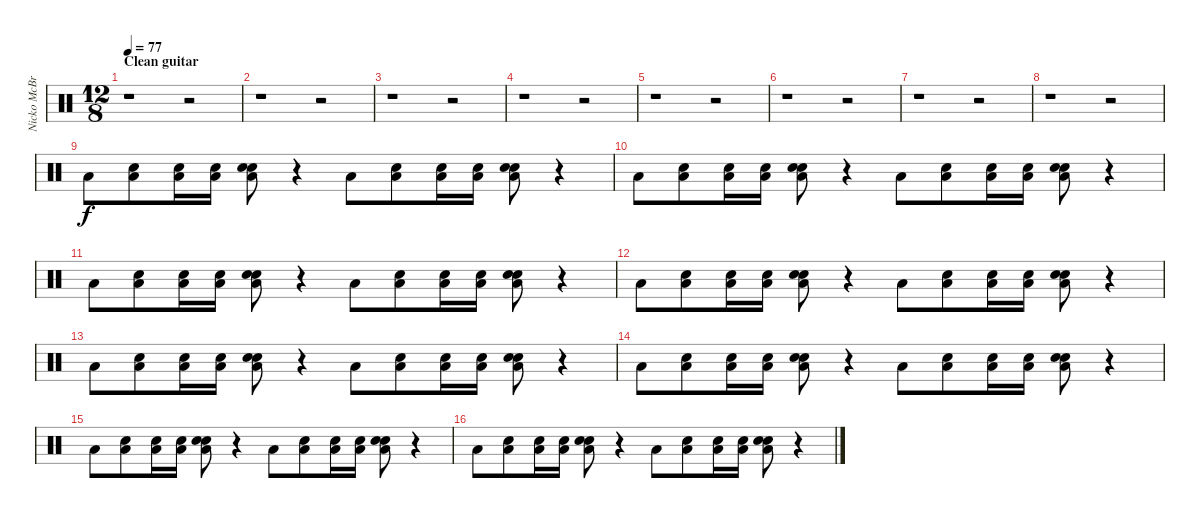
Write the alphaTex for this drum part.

\track ("Nicko McBrain" "Nicko McBr") {instrument percussion}
\staff {score}
\articulation defaults
\ts (12 8)
\section ("" "Clean guitar")
\tempo 77
\clef neutral
\ks c
r.1{dy f} r.2 |
r.1 r.2 |
r.1 r.2 |
r.1 r.2 |
r.1 r.2 |
r.1 r.2 |
r.1 r.2 |
r.1 r.2 |
"Low Floor Tom (hit)".8 ("Snare (hit)" "Low Floor Tom (hit)").8 ("Snare (hit)" "Low Floor Tom (hit)").16 ("Snare (hit)" "Low Floor Tom (hit)").16 ("Snare (hit)" "Electric Snare (hit)" "Low Floor Tom (hit)").8 r.4 "Low Floor Tom (hit)".8 ("Snare (hit)" "Low Floor Tom (hit)").8 ("Snare (hit)" "Low Floor Tom (hit)").16 ("Snare (hit)" "Low Floor Tom (hit)").16 ("Snare (hit)" "Electric Snare (hit)" "Low Floor Tom (hit)").8 r.4 |
"Low Floor Tom (hit)".8 ("Snare (hit)" "Low Floor Tom (hit)").8 ("Snare (hit)" "Low Floor Tom (hit)").16 ("Snare (hit)" "Low Floor Tom (hit)").16 ("Snare (hit)" "Electric Snare (hit)" "Low Floor Tom (hit)").8 r.4 "Low Floor Tom (hit)".8 ("Snare (hit)" "Low Floor Tom (hit)").8 ("Snare (hit)" "Low Floor Tom (hit)").16 ("Snare (hit)" "Low Floor Tom (hit)").16 ("Snare (hit)" "Electric Snare (hit)" "Low Floor Tom (hit)").8 r.4 |
"Low Floor Tom (hit)".8 ("Snare (hit)" "Low Floor Tom (hit)").8 ("Snare (hit)" "Low Floor Tom (hit)").16 ("Snare (hit)" "Low Floor Tom (hit)").16 ("Snare (hit)" "Electric Snare (hit)" "Low Floor Tom (hit)").8 r.4 "Low Floor Tom (hit)".8 ("Snare (hit)" "Low Floor Tom (hit)").8 ("Snare (hit)" "Low Floor Tom (hit)").16 ("Snare (hit)" "Low Floor Tom (hit)").16 ("Snare (hit)" "Electric Snare (hit)" "Low Floor Tom (hit)").8 r.4 |
"Low Floor Tom (hit)".8 ("Snare (hit)" "Low Floor Tom (hit)").8 ("Snare (hit)" "Low Floor Tom (hit)").16 ("Snare (hit)" "Low Floor Tom (hit)").16 ("Snare (hit)" "Electric Snare (hit)" "Low Floor Tom (hit)").8 r.4 "Low Floor Tom (hit)".8 ("Snare (hit)" "Low Floor Tom (hit)").8 ("Snare (hit)" "Low Floor Tom (hit)").16 ("Snare (hit)" "Low Floor Tom (hit)").16 ("Snare (hit)" "Electric Snare (hit)" "Low Floor Tom (hit)").8 r.4 |
"Low Floor Tom (hit)".8 ("Snare (hit)" "Low Floor Tom (hit)").8 ("Snare (hit)" "Low Floor Tom (hit)").16 ("Snare (hit)" "Low Floor Tom (hit)").16 ("Snare (hit)" "Electric Snare (hit)" "Low Floor Tom (hit)").8 r.4 "Low Floor Tom (hit)".8 ("Snare (hit)" "Low Floor Tom (hit)").8 ("Snare (hit)" "Low Floor Tom (hit)").16 ("Snare (hit)" "Low Floor Tom (hit)").16 ("Snare (hit)" "Electric Snare (hit)" "Low Floor Tom (hit)").8 r.4 |
"Low Floor Tom (hit)".8 ("Snare (hit)" "Low Floor Tom (hit)").8 ("Snare (hit)" "Low Floor Tom (hit)").16 ("Snare (hit)" "Low Floor Tom (hit)").16 ("Snare (hit)" "Electric Snare (hit)" "Low Floor Tom (hit)").8 r.4 "Low Floor Tom (hit)".8 ("Snare (hit)" "Low Floor Tom (hit)").8 ("Snare (hit)" "Low Floor Tom (hit)").16 ("Snare (hit)" "Low Floor Tom (hit)").16 ("Snare (hit)" "Electric Snare (hit)" "Low Floor Tom (hit)").8 r.4 |
"Low Floor Tom (hit)".8 ("Snare (hit)" "Low Floor Tom (hit)").8 ("Snare (hit)" "Low Floor Tom (hit)").16 ("Snare (hit)" "Low Floor Tom (hit)").16 ("Snare (hit)" "Electric Snare (hit)" "Low Floor Tom (hit)").8 r.4 "Low Floor Tom (hit)".8 ("Snare (hit)" "Low Floor Tom (hit)").8 ("Snare (hit)" "Low Floor Tom (hit)").16 ("Snare (hit)" "Low Floor Tom (hit)").16 ("Snare (hit)" "Electric Snare (hit)" "Low Floor Tom (hit)").8 r.4 |
"Low Floor Tom (hit)".8 ("Snare (hit)" "Low Floor Tom (hit)").8 ("Snare (hit)" "Low Floor Tom (hit)").16 ("Snare (hit)" "Low Floor Tom (hit)").16 ("Snare (hit)" "Electric Snare (hit)" "Low Floor Tom (hit)").8 r.4 "Low Floor Tom (hit)".8 ("Snare (hit)" "Low Floor Tom (hit)").8 ("Snare (hit)" "Low Floor Tom (hit)").16 ("Snare (hit)" "Low Floor Tom (hit)").16 ("Snare (hit)" "Electric Snare (hit)" "Low Floor Tom (hit)").8 r.4
